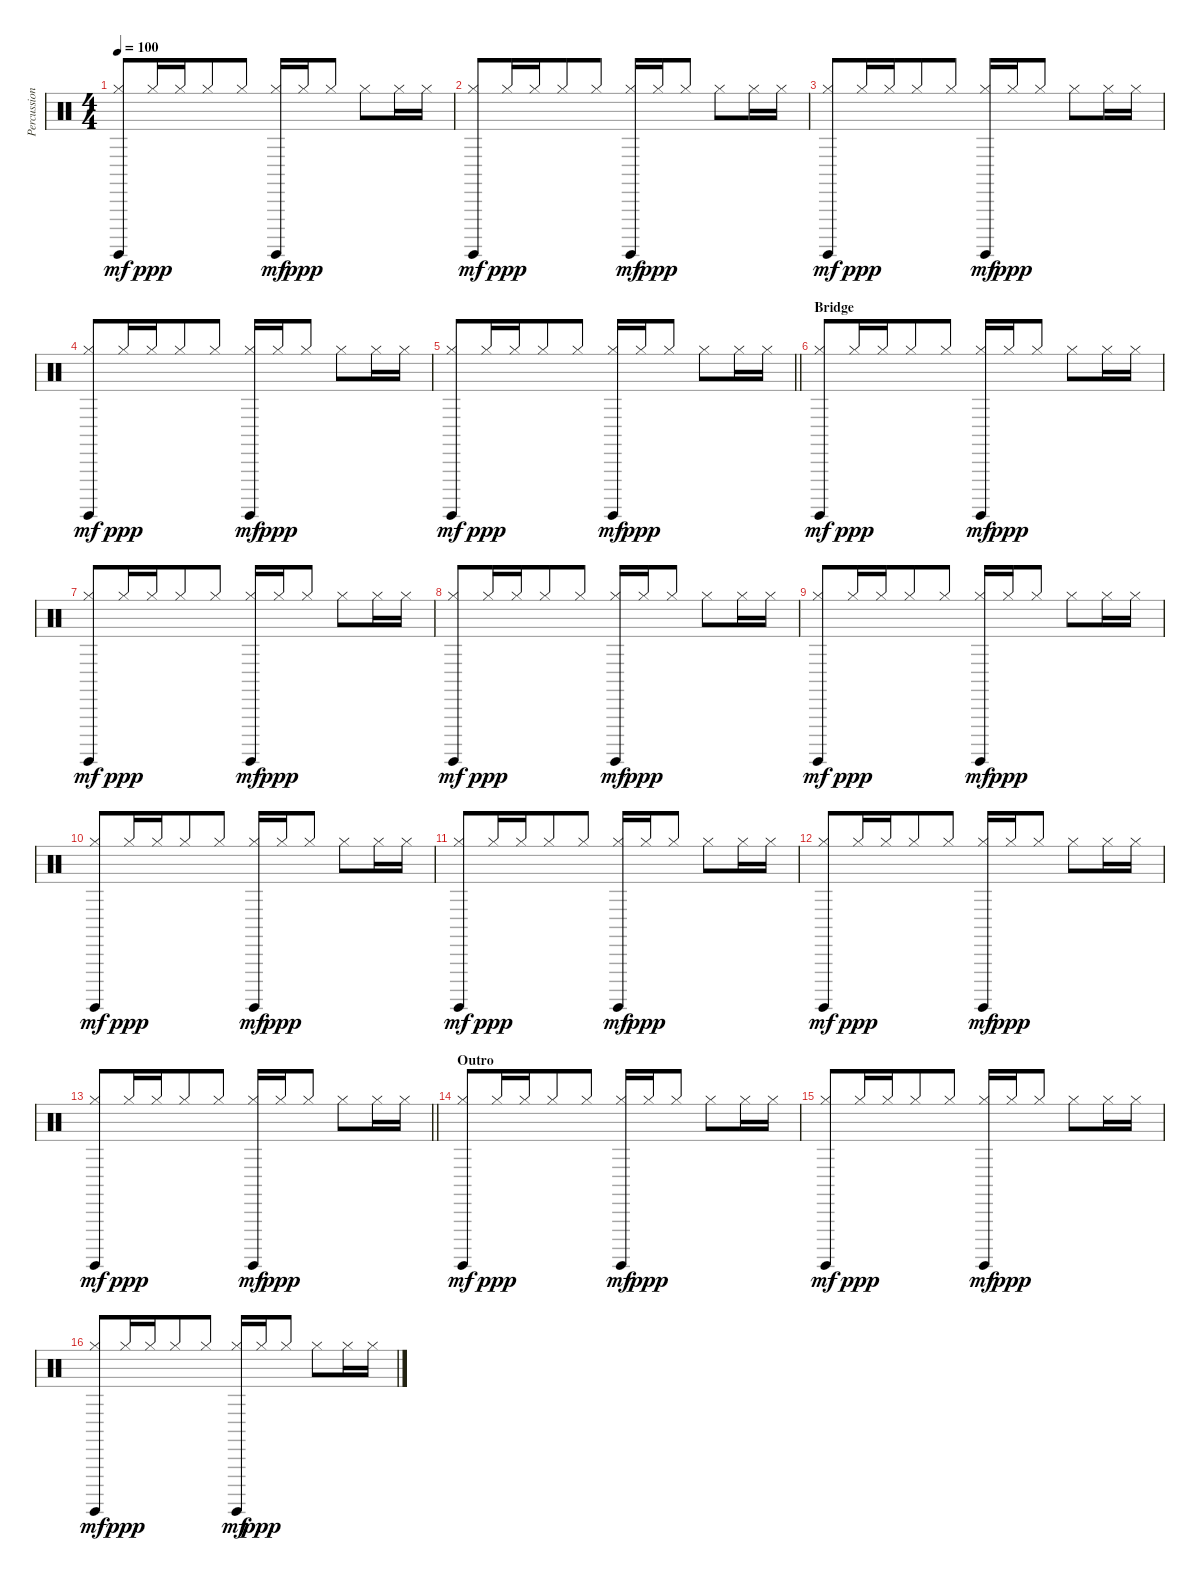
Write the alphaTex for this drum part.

\track ("Percussion" "Percussion") {instrument percussion}
\staff {score}
\articulation defaults
\ts (4 4)
\tempo 100
\clef neutral
\ks c
("Hi-Hat (closed)" "Surdo (hit)").8{dy mf} "Hi-Hat (closed)".16{dy ppp} "Hi-Hat (closed)".16{beam merge} "Hi-Hat (closed)".8 "Hi-Hat (closed)".8 ("Hi-Hat (closed)" "Surdo (hit)").16{dy mf} "Hi-Hat (closed)".16{dy ppp beam merge} "Hi-Hat (closed)".8 "Hi-Hat (closed)".8 "Hi-Hat (closed)".16 "Hi-Hat (closed)".16 |
("Hi-Hat (closed)" "Surdo (hit)").8{dy mf} "Hi-Hat (closed)".16{dy ppp} "Hi-Hat (closed)".16{beam merge} "Hi-Hat (closed)".8 "Hi-Hat (closed)".8 ("Hi-Hat (closed)" "Surdo (hit)").16{dy mf} "Hi-Hat (closed)".16{dy ppp beam merge} "Hi-Hat (closed)".8 "Hi-Hat (closed)".8 "Hi-Hat (closed)".16 "Hi-Hat (closed)".16 |
("Hi-Hat (closed)" "Surdo (hit)").8{dy mf} "Hi-Hat (closed)".16{dy ppp} "Hi-Hat (closed)".16{beam merge} "Hi-Hat (closed)".8 "Hi-Hat (closed)".8 ("Hi-Hat (closed)" "Surdo (hit)").16{dy mf} "Hi-Hat (closed)".16{dy ppp beam merge} "Hi-Hat (closed)".8 "Hi-Hat (closed)".8 "Hi-Hat (closed)".16 "Hi-Hat (closed)".16 |
("Hi-Hat (closed)" "Surdo (hit)").8{dy mf} "Hi-Hat (closed)".16{dy ppp} "Hi-Hat (closed)".16{beam merge} "Hi-Hat (closed)".8 "Hi-Hat (closed)".8 ("Hi-Hat (closed)" "Surdo (hit)").16{dy mf} "Hi-Hat (closed)".16{dy ppp beam merge} "Hi-Hat (closed)".8 "Hi-Hat (closed)".8 "Hi-Hat (closed)".16 "Hi-Hat (closed)".16 |
\barLineRight lightlight
("Hi-Hat (closed)" "Surdo (hit)").8{dy mf} "Hi-Hat (closed)".16{dy ppp} "Hi-Hat (closed)".16{beam merge} "Hi-Hat (closed)".8 "Hi-Hat (closed)".8 ("Hi-Hat (closed)" "Surdo (hit)").16{dy mf} "Hi-Hat (closed)".16{dy ppp beam merge} "Hi-Hat (closed)".8 "Hi-Hat (closed)".8 "Hi-Hat (closed)".16 "Hi-Hat (closed)".16 |
\section ("" "Bridge")
("Hi-Hat (closed)" "Surdo (hit)").8{dy mf} "Hi-Hat (closed)".16{dy ppp} "Hi-Hat (closed)".16{beam merge} "Hi-Hat (closed)".8 "Hi-Hat (closed)".8 ("Hi-Hat (closed)" "Surdo (hit)").16{dy mf} "Hi-Hat (closed)".16{dy ppp beam merge} "Hi-Hat (closed)".8 "Hi-Hat (closed)".8 "Hi-Hat (closed)".16 "Hi-Hat (closed)".16 |
("Hi-Hat (closed)" "Surdo (hit)").8{dy mf} "Hi-Hat (closed)".16{dy ppp} "Hi-Hat (closed)".16{beam merge} "Hi-Hat (closed)".8 "Hi-Hat (closed)".8 ("Hi-Hat (closed)" "Surdo (hit)").16{dy mf} "Hi-Hat (closed)".16{dy ppp beam merge} "Hi-Hat (closed)".8 "Hi-Hat (closed)".8 "Hi-Hat (closed)".16 "Hi-Hat (closed)".16 |
("Hi-Hat (closed)" "Surdo (hit)").8{dy mf} "Hi-Hat (closed)".16{dy ppp} "Hi-Hat (closed)".16{beam merge} "Hi-Hat (closed)".8 "Hi-Hat (closed)".8 ("Hi-Hat (closed)" "Surdo (hit)").16{dy mf} "Hi-Hat (closed)".16{dy ppp beam merge} "Hi-Hat (closed)".8 "Hi-Hat (closed)".8 "Hi-Hat (closed)".16 "Hi-Hat (closed)".16 |
("Hi-Hat (closed)" "Surdo (hit)").8{dy mf} "Hi-Hat (closed)".16{dy ppp} "Hi-Hat (closed)".16{beam merge} "Hi-Hat (closed)".8 "Hi-Hat (closed)".8 ("Hi-Hat (closed)" "Surdo (hit)").16{dy mf} "Hi-Hat (closed)".16{dy ppp beam merge} "Hi-Hat (closed)".8 "Hi-Hat (closed)".8 "Hi-Hat (closed)".16 "Hi-Hat (closed)".16 |
("Hi-Hat (closed)" "Surdo (hit)").8{dy mf} "Hi-Hat (closed)".16{dy ppp} "Hi-Hat (closed)".16{beam merge} "Hi-Hat (closed)".8 "Hi-Hat (closed)".8 ("Hi-Hat (closed)" "Surdo (hit)").16{dy mf} "Hi-Hat (closed)".16{dy ppp beam merge} "Hi-Hat (closed)".8 "Hi-Hat (closed)".8 "Hi-Hat (closed)".16 "Hi-Hat (closed)".16 |
("Hi-Hat (closed)" "Surdo (hit)").8{dy mf} "Hi-Hat (closed)".16{dy ppp} "Hi-Hat (closed)".16{beam merge} "Hi-Hat (closed)".8 "Hi-Hat (closed)".8 ("Hi-Hat (closed)" "Surdo (hit)").16{dy mf} "Hi-Hat (closed)".16{dy ppp beam merge} "Hi-Hat (closed)".8 "Hi-Hat (closed)".8 "Hi-Hat (closed)".16 "Hi-Hat (closed)".16 |
("Hi-Hat (closed)" "Surdo (hit)").8{dy mf} "Hi-Hat (closed)".16{dy ppp} "Hi-Hat (closed)".16{beam merge} "Hi-Hat (closed)".8 "Hi-Hat (closed)".8 ("Hi-Hat (closed)" "Surdo (hit)").16{dy mf} "Hi-Hat (closed)".16{dy ppp beam merge} "Hi-Hat (closed)".8 "Hi-Hat (closed)".8 "Hi-Hat (closed)".16 "Hi-Hat (closed)".16 |
\barLineRight lightlight
("Hi-Hat (closed)" "Surdo (hit)").8{dy mf} "Hi-Hat (closed)".16{dy ppp} "Hi-Hat (closed)".16{beam merge} "Hi-Hat (closed)".8 "Hi-Hat (closed)".8 ("Hi-Hat (closed)" "Surdo (hit)").16{dy mf} "Hi-Hat (closed)".16{dy ppp beam merge} "Hi-Hat (closed)".8 "Hi-Hat (closed)".8 "Hi-Hat (closed)".16 "Hi-Hat (closed)".16 |
\section ("" "Outro")
("Hi-Hat (closed)" "Surdo (hit)").8{dy mf} "Hi-Hat (closed)".16{dy ppp} "Hi-Hat (closed)".16{beam merge} "Hi-Hat (closed)".8 "Hi-Hat (closed)".8 ("Hi-Hat (closed)" "Surdo (hit)").16{dy mf} "Hi-Hat (closed)".16{dy ppp beam merge} "Hi-Hat (closed)".8 "Hi-Hat (closed)".8 "Hi-Hat (closed)".16 "Hi-Hat (closed)".16 |
("Hi-Hat (closed)" "Surdo (hit)").8{dy mf} "Hi-Hat (closed)".16{dy ppp} "Hi-Hat (closed)".16{beam merge} "Hi-Hat (closed)".8 "Hi-Hat (closed)".8 ("Hi-Hat (closed)" "Surdo (hit)").16{dy mf} "Hi-Hat (closed)".16{dy ppp beam merge} "Hi-Hat (closed)".8 "Hi-Hat (closed)".8 "Hi-Hat (closed)".16 "Hi-Hat (closed)".16 |
("Hi-Hat (closed)" "Surdo (hit)").8{dy mf} "Hi-Hat (closed)".16{dy ppp} "Hi-Hat (closed)".16{beam merge} "Hi-Hat (closed)".8 "Hi-Hat (closed)".8 ("Hi-Hat (closed)" "Surdo (hit)").16{dy mf} "Hi-Hat (closed)".16{dy ppp beam merge} "Hi-Hat (closed)".8 "Hi-Hat (closed)".8 "Hi-Hat (closed)".16 "Hi-Hat (closed)".16
